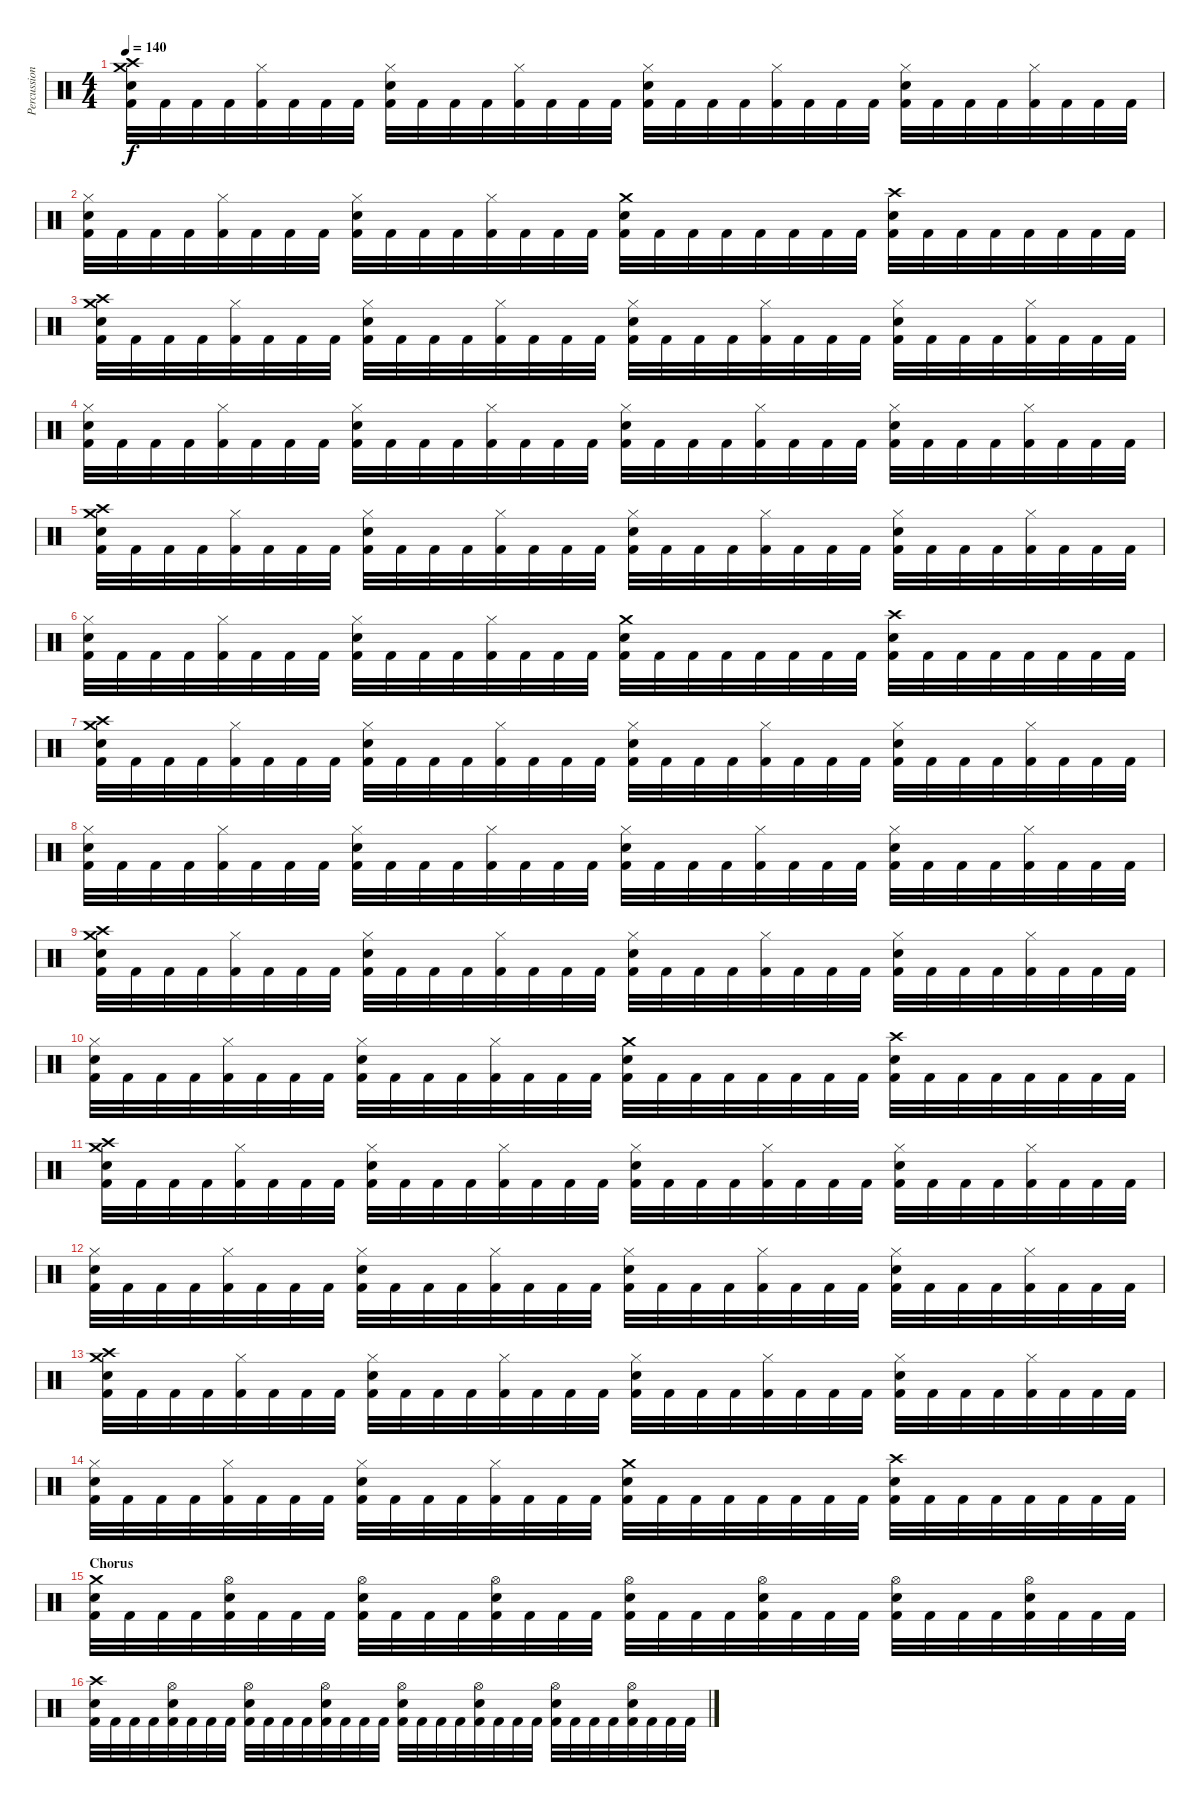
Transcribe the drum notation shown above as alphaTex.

\track ("Percussion" "Percussion") {instrument percussion}
\staff {score}
\articulation defaults
\ts (4 4)
\tempo 140
\clef neutral
\ks c
("Crash medium (hit)" "Crash high (hit)" "Electric Snare (hit)" "Kick (hit) 2").32{dy f} "Kick (hit) 2".32 "Kick (hit) 2".32 "Kick (hit) 2".32 ("Hi-Hat (closed)" "Kick (hit) 2").32 "Kick (hit) 2".32 "Kick (hit) 2".32 "Kick (hit) 2".32 ("Hi-Hat (closed)" "Electric Snare (hit)" "Kick (hit) 2").32 "Kick (hit) 2".32 "Kick (hit) 2".32 "Kick (hit) 2".32 ("Hi-Hat (closed)" "Kick (hit) 2").32 "Kick (hit) 2".32 "Kick (hit) 2".32 "Kick (hit) 2".32 ("Hi-Hat (closed)" "Electric Snare (hit)" "Kick (hit) 2").32 "Kick (hit) 2".32 "Kick (hit) 2".32 "Kick (hit) 2".32 ("Hi-Hat (closed)" "Kick (hit) 2").32 "Kick (hit) 2".32 "Kick (hit) 2".32 "Kick (hit) 2".32 ("Hi-Hat (closed)" "Electric Snare (hit)" "Kick (hit) 2").32 "Kick (hit) 2".32 "Kick (hit) 2".32 "Kick (hit) 2".32 ("Hi-Hat (closed)" "Kick (hit) 2").32 "Kick (hit) 2".32 "Kick (hit) 2".32 "Kick (hit) 2".32 |
("Hi-Hat (closed)" "Electric Snare (hit)" "Kick (hit) 2").32 "Kick (hit) 2".32 "Kick (hit) 2".32 "Kick (hit) 2".32 ("Hi-Hat (closed)" "Kick (hit) 2").32 "Kick (hit) 2".32 "Kick (hit) 2".32 "Kick (hit) 2".32 ("Hi-Hat (closed)" "Electric Snare (hit)" "Kick (hit) 2").32 "Kick (hit) 2".32 "Kick (hit) 2".32 "Kick (hit) 2".32 ("Hi-Hat (closed)" "Kick (hit) 2").32 "Kick (hit) 2".32 "Kick (hit) 2".32 "Kick (hit) 2".32 ("Crash medium (hit)" "Electric Snare (hit)" "Kick (hit) 2").32 "Kick (hit) 2".32 "Kick (hit) 2".32 "Kick (hit) 2".32 "Kick (hit) 2".32 "Kick (hit) 2".32 "Kick (hit) 2".32 "Kick (hit) 2".32 ("Crash high (hit)" "Electric Snare (hit)" "Kick (hit) 2").32 "Kick (hit) 2".32 "Kick (hit) 2".32 "Kick (hit) 2".32 "Kick (hit) 2".32 "Kick (hit) 2".32 "Kick (hit) 2".32 "Kick (hit) 2".32 |
("Crash medium (hit)" "Crash high (hit)" "Electric Snare (hit)" "Kick (hit) 2").32 "Kick (hit) 2".32 "Kick (hit) 2".32 "Kick (hit) 2".32 ("Hi-Hat (closed)" "Kick (hit) 2").32 "Kick (hit) 2".32 "Kick (hit) 2".32 "Kick (hit) 2".32 ("Hi-Hat (closed)" "Electric Snare (hit)" "Kick (hit) 2").32 "Kick (hit) 2".32 "Kick (hit) 2".32 "Kick (hit) 2".32 ("Hi-Hat (closed)" "Kick (hit) 2").32 "Kick (hit) 2".32 "Kick (hit) 2".32 "Kick (hit) 2".32 ("Hi-Hat (closed)" "Electric Snare (hit)" "Kick (hit) 2").32 "Kick (hit) 2".32 "Kick (hit) 2".32 "Kick (hit) 2".32 ("Hi-Hat (closed)" "Kick (hit) 2").32 "Kick (hit) 2".32 "Kick (hit) 2".32 "Kick (hit) 2".32 ("Hi-Hat (closed)" "Electric Snare (hit)" "Kick (hit) 2").32 "Kick (hit) 2".32 "Kick (hit) 2".32 "Kick (hit) 2".32 ("Hi-Hat (closed)" "Kick (hit) 2").32 "Kick (hit) 2".32 "Kick (hit) 2".32 "Kick (hit) 2".32 |
("Hi-Hat (closed)" "Electric Snare (hit)" "Kick (hit) 2").32 "Kick (hit) 2".32 "Kick (hit) 2".32 "Kick (hit) 2".32 ("Hi-Hat (closed)" "Kick (hit) 2").32 "Kick (hit) 2".32 "Kick (hit) 2".32 "Kick (hit) 2".32 ("Hi-Hat (closed)" "Electric Snare (hit)" "Kick (hit) 2").32 "Kick (hit) 2".32 "Kick (hit) 2".32 "Kick (hit) 2".32 ("Hi-Hat (closed)" "Kick (hit) 2").32 "Kick (hit) 2".32 "Kick (hit) 2".32 "Kick (hit) 2".32 ("Hi-Hat (closed)" "Electric Snare (hit)" "Kick (hit) 2").32 "Kick (hit) 2".32 "Kick (hit) 2".32 "Kick (hit) 2".32 ("Hi-Hat (closed)" "Kick (hit) 2").32 "Kick (hit) 2".32 "Kick (hit) 2".32 "Kick (hit) 2".32 ("Hi-Hat (closed)" "Electric Snare (hit)" "Kick (hit) 2").32 "Kick (hit) 2".32 "Kick (hit) 2".32 "Kick (hit) 2".32 ("Hi-Hat (closed)" "Kick (hit) 2").32 "Kick (hit) 2".32 "Kick (hit) 2".32 "Kick (hit) 2".32 |
("Crash medium (hit)" "Crash high (hit)" "Electric Snare (hit)" "Kick (hit) 2").32 "Kick (hit) 2".32 "Kick (hit) 2".32 "Kick (hit) 2".32 ("Hi-Hat (closed)" "Kick (hit) 2").32 "Kick (hit) 2".32 "Kick (hit) 2".32 "Kick (hit) 2".32 ("Hi-Hat (closed)" "Electric Snare (hit)" "Kick (hit) 2").32 "Kick (hit) 2".32 "Kick (hit) 2".32 "Kick (hit) 2".32 ("Hi-Hat (closed)" "Kick (hit) 2").32 "Kick (hit) 2".32 "Kick (hit) 2".32 "Kick (hit) 2".32 ("Hi-Hat (closed)" "Electric Snare (hit)" "Kick (hit) 2").32 "Kick (hit) 2".32 "Kick (hit) 2".32 "Kick (hit) 2".32 ("Hi-Hat (closed)" "Kick (hit) 2").32 "Kick (hit) 2".32 "Kick (hit) 2".32 "Kick (hit) 2".32 ("Hi-Hat (closed)" "Electric Snare (hit)" "Kick (hit) 2").32 "Kick (hit) 2".32 "Kick (hit) 2".32 "Kick (hit) 2".32 ("Hi-Hat (closed)" "Kick (hit) 2").32 "Kick (hit) 2".32 "Kick (hit) 2".32 "Kick (hit) 2".32 |
("Hi-Hat (closed)" "Electric Snare (hit)" "Kick (hit) 2").32 "Kick (hit) 2".32 "Kick (hit) 2".32 "Kick (hit) 2".32 ("Hi-Hat (closed)" "Kick (hit) 2").32 "Kick (hit) 2".32 "Kick (hit) 2".32 "Kick (hit) 2".32 ("Hi-Hat (closed)" "Electric Snare (hit)" "Kick (hit) 2").32 "Kick (hit) 2".32 "Kick (hit) 2".32 "Kick (hit) 2".32 ("Hi-Hat (closed)" "Kick (hit) 2").32 "Kick (hit) 2".32 "Kick (hit) 2".32 "Kick (hit) 2".32 ("Crash medium (hit)" "Electric Snare (hit)" "Kick (hit) 2").32 "Kick (hit) 2".32 "Kick (hit) 2".32 "Kick (hit) 2".32 "Kick (hit) 2".32 "Kick (hit) 2".32 "Kick (hit) 2".32 "Kick (hit) 2".32 ("Crash high (hit)" "Electric Snare (hit)" "Kick (hit) 2").32 "Kick (hit) 2".32 "Kick (hit) 2".32 "Kick (hit) 2".32 "Kick (hit) 2".32 "Kick (hit) 2".32 "Kick (hit) 2".32 "Kick (hit) 2".32 |
("Crash medium (hit)" "Crash high (hit)" "Electric Snare (hit)" "Kick (hit) 2").32 "Kick (hit) 2".32 "Kick (hit) 2".32 "Kick (hit) 2".32 ("Hi-Hat (closed)" "Kick (hit) 2").32 "Kick (hit) 2".32 "Kick (hit) 2".32 "Kick (hit) 2".32 ("Hi-Hat (closed)" "Electric Snare (hit)" "Kick (hit) 2").32 "Kick (hit) 2".32 "Kick (hit) 2".32 "Kick (hit) 2".32 ("Hi-Hat (closed)" "Kick (hit) 2").32 "Kick (hit) 2".32 "Kick (hit) 2".32 "Kick (hit) 2".32 ("Hi-Hat (closed)" "Electric Snare (hit)" "Kick (hit) 2").32 "Kick (hit) 2".32 "Kick (hit) 2".32 "Kick (hit) 2".32 ("Hi-Hat (closed)" "Kick (hit) 2").32 "Kick (hit) 2".32 "Kick (hit) 2".32 "Kick (hit) 2".32 ("Hi-Hat (closed)" "Electric Snare (hit)" "Kick (hit) 2").32 "Kick (hit) 2".32 "Kick (hit) 2".32 "Kick (hit) 2".32 ("Hi-Hat (closed)" "Kick (hit) 2").32 "Kick (hit) 2".32 "Kick (hit) 2".32 "Kick (hit) 2".32 |
("Hi-Hat (closed)" "Electric Snare (hit)" "Kick (hit) 2").32 "Kick (hit) 2".32 "Kick (hit) 2".32 "Kick (hit) 2".32 ("Hi-Hat (closed)" "Kick (hit) 2").32 "Kick (hit) 2".32 "Kick (hit) 2".32 "Kick (hit) 2".32 ("Hi-Hat (closed)" "Electric Snare (hit)" "Kick (hit) 2").32 "Kick (hit) 2".32 "Kick (hit) 2".32 "Kick (hit) 2".32 ("Hi-Hat (closed)" "Kick (hit) 2").32 "Kick (hit) 2".32 "Kick (hit) 2".32 "Kick (hit) 2".32 ("Hi-Hat (closed)" "Electric Snare (hit)" "Kick (hit) 2").32 "Kick (hit) 2".32 "Kick (hit) 2".32 "Kick (hit) 2".32 ("Hi-Hat (closed)" "Kick (hit) 2").32 "Kick (hit) 2".32 "Kick (hit) 2".32 "Kick (hit) 2".32 ("Hi-Hat (closed)" "Electric Snare (hit)" "Kick (hit) 2").32 "Kick (hit) 2".32 "Kick (hit) 2".32 "Kick (hit) 2".32 ("Hi-Hat (closed)" "Kick (hit) 2").32 "Kick (hit) 2".32 "Kick (hit) 2".32 "Kick (hit) 2".32 |
("Crash medium (hit)" "Crash high (hit)" "Electric Snare (hit)" "Kick (hit) 2").32 "Kick (hit) 2".32 "Kick (hit) 2".32 "Kick (hit) 2".32 ("Hi-Hat (closed)" "Kick (hit) 2").32 "Kick (hit) 2".32 "Kick (hit) 2".32 "Kick (hit) 2".32 ("Hi-Hat (closed)" "Electric Snare (hit)" "Kick (hit) 2").32 "Kick (hit) 2".32 "Kick (hit) 2".32 "Kick (hit) 2".32 ("Hi-Hat (closed)" "Kick (hit) 2").32 "Kick (hit) 2".32 "Kick (hit) 2".32 "Kick (hit) 2".32 ("Hi-Hat (closed)" "Electric Snare (hit)" "Kick (hit) 2").32 "Kick (hit) 2".32 "Kick (hit) 2".32 "Kick (hit) 2".32 ("Hi-Hat (closed)" "Kick (hit) 2").32 "Kick (hit) 2".32 "Kick (hit) 2".32 "Kick (hit) 2".32 ("Hi-Hat (closed)" "Electric Snare (hit)" "Kick (hit) 2").32 "Kick (hit) 2".32 "Kick (hit) 2".32 "Kick (hit) 2".32 ("Hi-Hat (closed)" "Kick (hit) 2").32 "Kick (hit) 2".32 "Kick (hit) 2".32 "Kick (hit) 2".32 |
("Hi-Hat (closed)" "Electric Snare (hit)" "Kick (hit) 2").32 "Kick (hit) 2".32 "Kick (hit) 2".32 "Kick (hit) 2".32 ("Hi-Hat (closed)" "Kick (hit) 2").32 "Kick (hit) 2".32 "Kick (hit) 2".32 "Kick (hit) 2".32 ("Hi-Hat (closed)" "Electric Snare (hit)" "Kick (hit) 2").32 "Kick (hit) 2".32 "Kick (hit) 2".32 "Kick (hit) 2".32 ("Hi-Hat (closed)" "Kick (hit) 2").32 "Kick (hit) 2".32 "Kick (hit) 2".32 "Kick (hit) 2".32 ("Crash medium (hit)" "Electric Snare (hit)" "Kick (hit) 2").32 "Kick (hit) 2".32 "Kick (hit) 2".32 "Kick (hit) 2".32 "Kick (hit) 2".32 "Kick (hit) 2".32 "Kick (hit) 2".32 "Kick (hit) 2".32 ("Crash high (hit)" "Electric Snare (hit)" "Kick (hit) 2").32 "Kick (hit) 2".32 "Kick (hit) 2".32 "Kick (hit) 2".32 "Kick (hit) 2".32 "Kick (hit) 2".32 "Kick (hit) 2".32 "Kick (hit) 2".32 |
("Crash medium (hit)" "Crash high (hit)" "Electric Snare (hit)" "Kick (hit) 2").32 "Kick (hit) 2".32 "Kick (hit) 2".32 "Kick (hit) 2".32 ("Hi-Hat (closed)" "Kick (hit) 2").32 "Kick (hit) 2".32 "Kick (hit) 2".32 "Kick (hit) 2".32 ("Hi-Hat (closed)" "Electric Snare (hit)" "Kick (hit) 2").32 "Kick (hit) 2".32 "Kick (hit) 2".32 "Kick (hit) 2".32 ("Hi-Hat (closed)" "Kick (hit) 2").32 "Kick (hit) 2".32 "Kick (hit) 2".32 "Kick (hit) 2".32 ("Hi-Hat (closed)" "Electric Snare (hit)" "Kick (hit) 2").32 "Kick (hit) 2".32 "Kick (hit) 2".32 "Kick (hit) 2".32 ("Hi-Hat (closed)" "Kick (hit) 2").32 "Kick (hit) 2".32 "Kick (hit) 2".32 "Kick (hit) 2".32 ("Hi-Hat (closed)" "Electric Snare (hit)" "Kick (hit) 2").32 "Kick (hit) 2".32 "Kick (hit) 2".32 "Kick (hit) 2".32 ("Hi-Hat (closed)" "Kick (hit) 2").32 "Kick (hit) 2".32 "Kick (hit) 2".32 "Kick (hit) 2".32 |
("Hi-Hat (closed)" "Electric Snare (hit)" "Kick (hit) 2").32 "Kick (hit) 2".32 "Kick (hit) 2".32 "Kick (hit) 2".32 ("Hi-Hat (closed)" "Kick (hit) 2").32 "Kick (hit) 2".32 "Kick (hit) 2".32 "Kick (hit) 2".32 ("Hi-Hat (closed)" "Electric Snare (hit)" "Kick (hit) 2").32 "Kick (hit) 2".32 "Kick (hit) 2".32 "Kick (hit) 2".32 ("Hi-Hat (closed)" "Kick (hit) 2").32 "Kick (hit) 2".32 "Kick (hit) 2".32 "Kick (hit) 2".32 ("Hi-Hat (closed)" "Electric Snare (hit)" "Kick (hit) 2").32 "Kick (hit) 2".32 "Kick (hit) 2".32 "Kick (hit) 2".32 ("Hi-Hat (closed)" "Kick (hit) 2").32 "Kick (hit) 2".32 "Kick (hit) 2".32 "Kick (hit) 2".32 ("Hi-Hat (closed)" "Electric Snare (hit)" "Kick (hit) 2").32 "Kick (hit) 2".32 "Kick (hit) 2".32 "Kick (hit) 2".32 ("Hi-Hat (closed)" "Kick (hit) 2").32 "Kick (hit) 2".32 "Kick (hit) 2".32 "Kick (hit) 2".32 |
("Crash medium (hit)" "Crash high (hit)" "Electric Snare (hit)" "Kick (hit) 2").32 "Kick (hit) 2".32 "Kick (hit) 2".32 "Kick (hit) 2".32 ("Hi-Hat (closed)" "Kick (hit) 2").32 "Kick (hit) 2".32 "Kick (hit) 2".32 "Kick (hit) 2".32 ("Hi-Hat (closed)" "Electric Snare (hit)" "Kick (hit) 2").32 "Kick (hit) 2".32 "Kick (hit) 2".32 "Kick (hit) 2".32 ("Hi-Hat (closed)" "Kick (hit) 2").32 "Kick (hit) 2".32 "Kick (hit) 2".32 "Kick (hit) 2".32 ("Hi-Hat (closed)" "Electric Snare (hit)" "Kick (hit) 2").32 "Kick (hit) 2".32 "Kick (hit) 2".32 "Kick (hit) 2".32 ("Hi-Hat (closed)" "Kick (hit) 2").32 "Kick (hit) 2".32 "Kick (hit) 2".32 "Kick (hit) 2".32 ("Hi-Hat (closed)" "Electric Snare (hit)" "Kick (hit) 2").32 "Kick (hit) 2".32 "Kick (hit) 2".32 "Kick (hit) 2".32 ("Hi-Hat (closed)" "Kick (hit) 2").32 "Kick (hit) 2".32 "Kick (hit) 2".32 "Kick (hit) 2".32 |
("Hi-Hat (closed)" "Electric Snare (hit)" "Kick (hit) 2").32 "Kick (hit) 2".32 "Kick (hit) 2".32 "Kick (hit) 2".32 ("Hi-Hat (closed)" "Kick (hit) 2").32 "Kick (hit) 2".32 "Kick (hit) 2".32 "Kick (hit) 2".32 ("Hi-Hat (closed)" "Electric Snare (hit)" "Kick (hit) 2").32 "Kick (hit) 2".32 "Kick (hit) 2".32 "Kick (hit) 2".32 ("Hi-Hat (closed)" "Kick (hit) 2").32 "Kick (hit) 2".32 "Kick (hit) 2".32 "Kick (hit) 2".32 ("Crash medium (hit)" "Electric Snare (hit)" "Kick (hit) 2").32 "Kick (hit) 2".32 "Kick (hit) 2".32 "Kick (hit) 2".32 "Kick (hit) 2".32 "Kick (hit) 2".32 "Kick (hit) 2".32 "Kick (hit) 2".32 ("Crash high (hit)" "Electric Snare (hit)" "Kick (hit) 2").32 "Kick (hit) 2".32 "Kick (hit) 2".32 "Kick (hit) 2".32 "Kick (hit) 2".32 "Kick (hit) 2".32 "Kick (hit) 2".32 "Kick (hit) 2".32 |
\section ("" "Chorus")
("Crash medium (hit)" "Electric Snare (hit)" "Kick (hit) 2").32 "Kick (hit) 2".32 "Kick (hit) 2".32 "Kick (hit) 2".32 ("Hi-Hat (open)" "Electric Snare (hit)" "Kick (hit) 2").32 "Kick (hit) 2".32 "Kick (hit) 2".32 "Kick (hit) 2".32 ("Hi-Hat (open)" "Electric Snare (hit)" "Kick (hit) 2").32 "Kick (hit) 2".32 "Kick (hit) 2".32 "Kick (hit) 2".32 ("Hi-Hat (open)" "Electric Snare (hit)" "Kick (hit) 2").32 "Kick (hit) 2".32 "Kick (hit) 2".32 "Kick (hit) 2".32 ("Hi-Hat (open)" "Electric Snare (hit)" "Kick (hit) 2").32 "Kick (hit) 2".32 "Kick (hit) 2".32 "Kick (hit) 2".32 ("Hi-Hat (open)" "Electric Snare (hit)" "Kick (hit) 2").32 "Kick (hit) 2".32 "Kick (hit) 2".32 "Kick (hit) 2".32 ("Hi-Hat (open)" "Electric Snare (hit)" "Kick (hit) 2").32 "Kick (hit) 2".32 "Kick (hit) 2".32 "Kick (hit) 2".32 ("Hi-Hat (open)" "Electric Snare (hit)" "Kick (hit) 2").32 "Kick (hit) 2".32 "Kick (hit) 2".32 "Kick (hit) 2".32 |
("Crash high (hit)" "Electric Snare (hit)" "Kick (hit) 2").32 "Kick (hit) 2".32 "Kick (hit) 2".32 "Kick (hit) 2".32 ("Hi-Hat (open)" "Electric Snare (hit)" "Kick (hit) 2").32 "Kick (hit) 2".32 "Kick (hit) 2".32 "Kick (hit) 2".32 ("Hi-Hat (open)" "Electric Snare (hit)" "Kick (hit) 2").32 "Kick (hit) 2".32 "Kick (hit) 2".32 "Kick (hit) 2".32 ("Hi-Hat (open)" "Electric Snare (hit)" "Kick (hit) 2").32 "Kick (hit) 2".32 "Kick (hit) 2".32 "Kick (hit) 2".32 ("Hi-Hat (open)" "Electric Snare (hit)" "Kick (hit) 2").32 "Kick (hit) 2".32 "Kick (hit) 2".32 "Kick (hit) 2".32 ("Hi-Hat (open)" "Electric Snare (hit)" "Kick (hit) 2").32 "Kick (hit) 2".32 "Kick (hit) 2".32 "Kick (hit) 2".32 ("Hi-Hat (open)" "Electric Snare (hit)" "Kick (hit) 2").32 "Kick (hit) 2".32 "Kick (hit) 2".32 "Kick (hit) 2".32 ("Hi-Hat (open)" "Electric Snare (hit)" "Kick (hit) 2").32 "Kick (hit) 2".32 "Kick (hit) 2".32 "Kick (hit) 2".32
